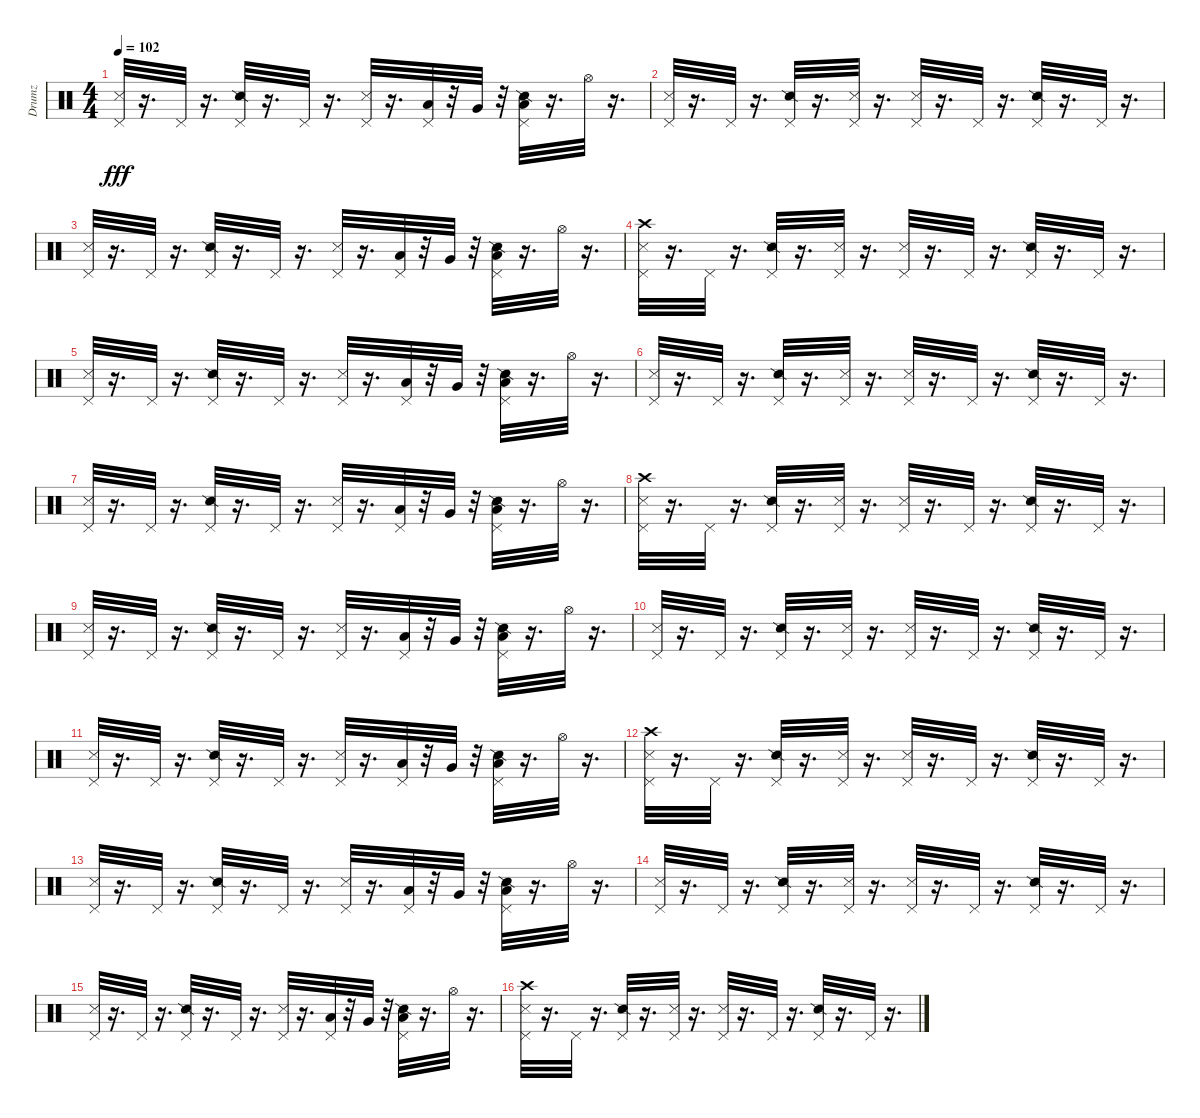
\track ("Drumz" "Drumz") {instrument percussion}
\staff {score}
\articulation defaults
\ts (4 4)
\tempo 102
\clef neutral
\ks c
("Metronome (hit)" "Pedal Hi-Hat (hit)").32{dy fff} r.16{d} "Pedal Hi-Hat (hit)".32 r.16{d} ("Pedal Hi-Hat (hit)" "Snare (side stick) 2").32 r.16{d} "Pedal Hi-Hat (hit)".32 r.16{d} ("Metronome (hit)" "Pedal Hi-Hat (hit)").32 r.16{d} ("Pedal Hi-Hat (hit)" "Low Floor Tom (hit)").32 r.32 "Very Low Tom (hit)".32 r.32 ("Snare (side stick) 2" "Pedal Hi-Hat (hit)" "Low Floor Tom (hit)").32 r.16{d} "Hi-Hat (open)".32 r.16{d} |
("Metronome (hit)" "Pedal Hi-Hat (hit)").32 r.16{d} "Pedal Hi-Hat (hit)".32 r.16{d} ("Pedal Hi-Hat (hit)" "Snare (side stick) 2").32 r.16{d} ("Pedal Hi-Hat (hit)" "Metronome (hit)").32 r.16{d} ("Metronome (hit)" "Pedal Hi-Hat (hit)").32 r.16{d} "Pedal Hi-Hat (hit)".32 r.16{d} ("Pedal Hi-Hat (hit)" "Snare (side stick) 2").32 r.16{d} "Pedal Hi-Hat (hit)".32 r.16{d} |
("Pedal Hi-Hat (hit)" "Metronome (hit)").32 r.16{d} "Pedal Hi-Hat (hit)".32 r.16{d} ("Snare (side stick) 2" "Pedal Hi-Hat (hit)").32 r.16{d} "Pedal Hi-Hat (hit)".32 r.16{d} ("Metronome (hit)" "Pedal Hi-Hat (hit)").32 r.16{d} ("Low Floor Tom (hit)" "Pedal Hi-Hat (hit)").32 r.32 "Very Low Tom (hit)".32 r.32 ("Pedal Hi-Hat (hit)" "Snare (side stick) 2" "Low Floor Tom (hit)").32 r.16{d} "Hi-Hat (open)".32 r.16{d} |
("Crash high (hit)" "Pedal Hi-Hat (hit)" "Metronome (hit)").32 r.16{d} "Pedal Hi-Hat (hit)".32 r.16{d} ("Pedal Hi-Hat (hit)" "Snare (side stick) 2").32 r.16{d} ("Pedal Hi-Hat (hit)" "Metronome (hit)").32 r.16{d} ("Metronome (hit)" "Pedal Hi-Hat (hit)").32 r.16{d} "Pedal Hi-Hat (hit)".32 r.16{d} ("Snare (side stick) 2" "Pedal Hi-Hat (hit)").32 r.16{d} "Pedal Hi-Hat (hit)".32 r.16{d} |
("Metronome (hit)" "Pedal Hi-Hat (hit)").32 r.16{d} "Pedal Hi-Hat (hit)".32 r.16{d} ("Pedal Hi-Hat (hit)" "Snare (side stick) 2").32 r.16{d} "Pedal Hi-Hat (hit)".32 r.16{d} ("Metronome (hit)" "Pedal Hi-Hat (hit)").32 r.16{d} ("Pedal Hi-Hat (hit)" "Low Floor Tom (hit)").32 r.32 "Very Low Tom (hit)".32 r.32 ("Snare (side stick) 2" "Pedal Hi-Hat (hit)" "Low Floor Tom (hit)").32 r.16{d} "Hi-Hat (open)".32 r.16{d} |
("Metronome (hit)" "Pedal Hi-Hat (hit)").32 r.16{d} "Pedal Hi-Hat (hit)".32 r.16{d} ("Pedal Hi-Hat (hit)" "Snare (side stick) 2").32 r.16{d} ("Pedal Hi-Hat (hit)" "Metronome (hit)").32 r.16{d} ("Metronome (hit)" "Pedal Hi-Hat (hit)").32 r.16{d} "Pedal Hi-Hat (hit)".32 r.16{d} ("Pedal Hi-Hat (hit)" "Snare (side stick) 2").32 r.16{d} "Pedal Hi-Hat (hit)".32 r.16{d} |
("Pedal Hi-Hat (hit)" "Metronome (hit)").32 r.16{d} "Pedal Hi-Hat (hit)".32 r.16{d} ("Snare (side stick) 2" "Pedal Hi-Hat (hit)").32 r.16{d} "Pedal Hi-Hat (hit)".32 r.16{d} ("Metronome (hit)" "Pedal Hi-Hat (hit)").32 r.16{d} ("Low Floor Tom (hit)" "Pedal Hi-Hat (hit)").32 r.32 "Very Low Tom (hit)".32 r.32 ("Pedal Hi-Hat (hit)" "Snare (side stick) 2" "Low Floor Tom (hit)").32 r.16{d} "Hi-Hat (open)".32 r.16{d} |
("Crash high (hit)" "Pedal Hi-Hat (hit)" "Metronome (hit)").32 r.16{d} "Pedal Hi-Hat (hit)".32 r.16{d} ("Pedal Hi-Hat (hit)" "Snare (side stick) 2").32 r.16{d} ("Pedal Hi-Hat (hit)" "Metronome (hit)").32 r.16{d} ("Metronome (hit)" "Pedal Hi-Hat (hit)").32 r.16{d} "Pedal Hi-Hat (hit)".32 r.16{d} ("Snare (side stick) 2" "Pedal Hi-Hat (hit)").32 r.16{d} "Pedal Hi-Hat (hit)".32 r.16{d} |
("Metronome (hit)" "Pedal Hi-Hat (hit)").32 r.16{d} "Pedal Hi-Hat (hit)".32 r.16{d} ("Pedal Hi-Hat (hit)" "Snare (side stick) 2").32 r.16{d} "Pedal Hi-Hat (hit)".32 r.16{d} ("Metronome (hit)" "Pedal Hi-Hat (hit)").32 r.16{d} ("Pedal Hi-Hat (hit)" "Low Floor Tom (hit)").32 r.32 "Very Low Tom (hit)".32 r.32 ("Snare (side stick) 2" "Pedal Hi-Hat (hit)" "Low Floor Tom (hit)").32 r.16{d} "Hi-Hat (open)".32 r.16{d} |
("Metronome (hit)" "Pedal Hi-Hat (hit)").32 r.16{d} "Pedal Hi-Hat (hit)".32 r.16{d} ("Pedal Hi-Hat (hit)" "Snare (side stick) 2").32 r.16{d} ("Pedal Hi-Hat (hit)" "Metronome (hit)").32 r.16{d} ("Metronome (hit)" "Pedal Hi-Hat (hit)").32 r.16{d} "Pedal Hi-Hat (hit)".32 r.16{d} ("Pedal Hi-Hat (hit)" "Snare (side stick) 2").32 r.16{d} "Pedal Hi-Hat (hit)".32 r.16{d} |
("Pedal Hi-Hat (hit)" "Metronome (hit)").32 r.16{d} "Pedal Hi-Hat (hit)".32 r.16{d} ("Snare (side stick) 2" "Pedal Hi-Hat (hit)").32 r.16{d} "Pedal Hi-Hat (hit)".32 r.16{d} ("Metronome (hit)" "Pedal Hi-Hat (hit)").32 r.16{d} ("Low Floor Tom (hit)" "Pedal Hi-Hat (hit)").32 r.32 "Very Low Tom (hit)".32 r.32 ("Pedal Hi-Hat (hit)" "Snare (side stick) 2" "Low Floor Tom (hit)").32 r.16{d} "Hi-Hat (open)".32 r.16{d} |
("Crash high (hit)" "Pedal Hi-Hat (hit)" "Metronome (hit)").32 r.16{d} "Pedal Hi-Hat (hit)".32 r.16{d} ("Pedal Hi-Hat (hit)" "Snare (side stick) 2").32 r.16{d} ("Pedal Hi-Hat (hit)" "Metronome (hit)").32 r.16{d} ("Metronome (hit)" "Pedal Hi-Hat (hit)").32 r.16{d} "Pedal Hi-Hat (hit)".32 r.16{d} ("Snare (side stick) 2" "Pedal Hi-Hat (hit)").32 r.16{d} "Pedal Hi-Hat (hit)".32 r.16{d} |
("Metronome (hit)" "Pedal Hi-Hat (hit)").32 r.16{d} "Pedal Hi-Hat (hit)".32 r.16{d} ("Pedal Hi-Hat (hit)" "Snare (side stick) 2").32 r.16{d} "Pedal Hi-Hat (hit)".32 r.16{d} ("Metronome (hit)" "Pedal Hi-Hat (hit)").32 r.16{d} ("Pedal Hi-Hat (hit)" "Low Floor Tom (hit)").32 r.32 "Very Low Tom (hit)".32 r.32 ("Snare (side stick) 2" "Pedal Hi-Hat (hit)" "Low Floor Tom (hit)").32 r.16{d} "Hi-Hat (open)".32 r.16{d} |
("Metronome (hit)" "Pedal Hi-Hat (hit)").32 r.16{d} "Pedal Hi-Hat (hit)".32 r.16{d} ("Pedal Hi-Hat (hit)" "Snare (side stick) 2").32 r.16{d} ("Pedal Hi-Hat (hit)" "Metronome (hit)").32 r.16{d} ("Metronome (hit)" "Pedal Hi-Hat (hit)").32 r.16{d} "Pedal Hi-Hat (hit)".32 r.16{d} ("Pedal Hi-Hat (hit)" "Snare (side stick) 2").32 r.16{d} "Pedal Hi-Hat (hit)".32 r.16{d} |
("Pedal Hi-Hat (hit)" "Metronome (hit)").32 r.16{d} "Pedal Hi-Hat (hit)".32 r.16{d} ("Snare (side stick) 2" "Pedal Hi-Hat (hit)").32 r.16{d} "Pedal Hi-Hat (hit)".32 r.16{d} ("Metronome (hit)" "Pedal Hi-Hat (hit)").32 r.16{d} ("Low Floor Tom (hit)" "Pedal Hi-Hat (hit)").32 r.32 "Very Low Tom (hit)".32 r.32 ("Pedal Hi-Hat (hit)" "Snare (side stick) 2" "Low Floor Tom (hit)").32 r.16{d} "Hi-Hat (open)".32 r.16{d} |
("Crash high (hit)" "Pedal Hi-Hat (hit)" "Metronome (hit)").32 r.16{d} "Pedal Hi-Hat (hit)".32 r.16{d} ("Pedal Hi-Hat (hit)" "Snare (side stick) 2").32 r.16{d} ("Pedal Hi-Hat (hit)" "Metronome (hit)").32 r.16{d} ("Metronome (hit)" "Pedal Hi-Hat (hit)").32 r.16{d} "Pedal Hi-Hat (hit)".32 r.16{d} ("Snare (side stick) 2" "Pedal Hi-Hat (hit)").32 r.16{d} "Pedal Hi-Hat (hit)".32 r.16{d}
